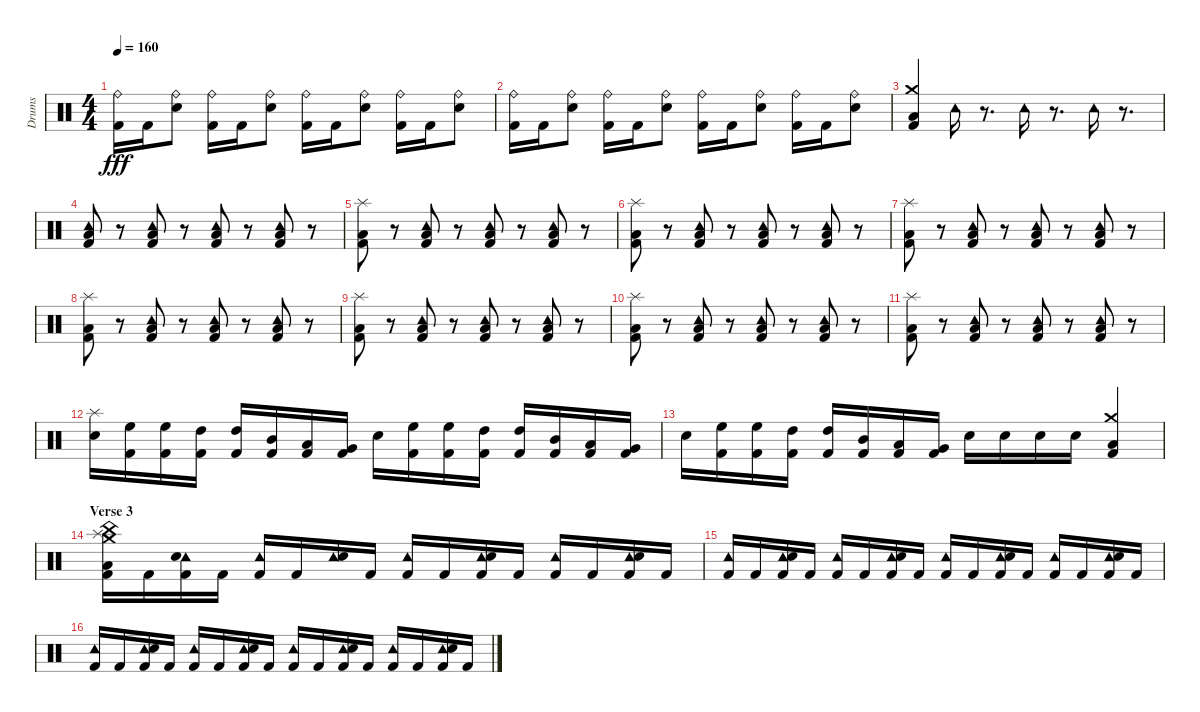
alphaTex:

\track ("Drums" "Drums") {instrument percussion}
\staff {score}
\articulation defaults
\ts (4 4)
\tempo 160
\clef neutral
\ks c
("Kick (hit) 2" "Ride (bell)").16{dy fff} "Kick (hit) 2".16 ("Electric Snare (hit)" "Ride (bell)").8 ("Kick (hit) 2" "Ride (bell)").16 "Kick (hit) 2".16 ("Electric Snare (hit)" "Ride (bell)").8 ("Kick (hit) 2" "Ride (bell)").16 "Kick (hit) 2".16 ("Electric Snare (hit)" "Ride (bell)").8 ("Kick (hit) 2" "Ride (bell)").16 "Kick (hit) 2".16 ("Electric Snare (hit)" "Ride (bell)").8 |
("Kick (hit) 2" "Ride (bell)").16 "Kick (hit) 2".16 ("Electric Snare (hit)" "Ride (bell)").8 ("Kick (hit) 2" "Ride (bell)").16 "Kick (hit) 2".16 ("Electric Snare (hit)" "Ride (bell)").8 ("Kick (hit) 2" "Ride (bell)").16 "Kick (hit) 2".16 ("Electric Snare (hit)" "Ride (bell)").8 ("Kick (hit) 2" "Ride (bell)").16 "Kick (hit) 2".16 ("Electric Snare (hit)" "Ride (bell)").8 |
("Kick (hit) 2" "Crash medium (hit)" "Low Tom (hit)").4 "Tambourine (hit)".16 r.8{d} "Tambourine (hit)".16 r.8{d} "Tambourine (hit)".16 r.8{d} |
("Tambourine (hit)" "Low Tom (hit)" "Kick (hit) 2").8 r.8 ("Tambourine (hit)" "Low Tom (hit)" "Kick (hit) 2").8 r.8 ("Tambourine (hit)" "Low Tom (hit)" "Kick (hit) 2").8 r.8 ("Tambourine (hit)" "Low Tom (hit)" "Kick (hit) 2").8 r.8 |
("Low Tom (hit)" "Splash (hit)" "Kick (hit) 2").8 r.8 ("Tambourine (hit)" "Low Tom (hit)" "Kick (hit) 2").8 r.8 ("Tambourine (hit)" "Low Tom (hit)" "Kick (hit) 2").8 r.8 ("Tambourine (hit)" "Low Tom (hit)" "Kick (hit) 2").8 r.8 |
("Low Tom (hit)" "Splash (hit)" "Kick (hit) 2").8 r.8 ("Tambourine (hit)" "Low Tom (hit)" "Kick (hit) 2").8 r.8 ("Tambourine (hit)" "Low Tom (hit)" "Kick (hit) 2").8 r.8 ("Tambourine (hit)" "Low Tom (hit)" "Kick (hit) 2").8 r.8 |
("Low Tom (hit)" "Splash (hit)" "Kick (hit) 2").8 r.8 ("Tambourine (hit)" "Low Tom (hit)" "Kick (hit) 2").8 r.8 ("Tambourine (hit)" "Low Tom (hit)" "Kick (hit) 2").8 r.8 ("Tambourine (hit)" "Low Tom (hit)" "Kick (hit) 2").8 r.8 |
("Low Tom (hit)" "Splash (hit)" "Kick (hit) 2").8 r.8 ("Tambourine (hit)" "Low Tom (hit)" "Kick (hit) 2").8 r.8 ("Tambourine (hit)" "Low Tom (hit)" "Kick (hit) 2").8 r.8 ("Tambourine (hit)" "Low Tom (hit)" "Kick (hit) 2").8 r.8 |
("Low Tom (hit)" "Splash (hit)" "Kick (hit) 2").8 r.8 ("Tambourine (hit)" "Low Tom (hit)" "Kick (hit) 2").8 r.8 ("Tambourine (hit)" "Low Tom (hit)" "Kick (hit) 2").8 r.8 ("Tambourine (hit)" "Low Tom (hit)" "Kick (hit) 2").8 r.8 |
("Low Tom (hit)" "Splash (hit)" "Kick (hit) 2").8 r.8 ("Tambourine (hit)" "Low Tom (hit)" "Kick (hit) 2").8 r.8 ("Tambourine (hit)" "Low Tom (hit)" "Kick (hit) 2").8 r.8 ("Tambourine (hit)" "Low Tom (hit)" "Kick (hit) 2").8 r.8 |
("Low Tom (hit)" "Splash (hit)" "Kick (hit) 2").8 r.8 ("Tambourine (hit)" "Low Tom (hit)" "Kick (hit) 2").8 r.8 ("Tambourine (hit)" "Low Tom (hit)" "Kick (hit) 2").8 r.8 ("Tambourine (hit)" "Low Tom (hit)" "Kick (hit) 2").8 r.8 |
("Splash (hit)" "Electric Snare (hit)").16 ("High Floor Tom (hit)" "Kick (hit) 2").16 ("High Floor Tom (hit)" "Kick (hit) 2").16 ("High Tom (hit)" "Kick (hit) 2").16 ("High Tom (hit)" "Kick (hit) 2").16 ("Mid Tom (hit)" "Kick (hit) 2").16 ("Low Tom (hit)" "Kick (hit) 2").16 ("Very Low Tom (hit)" "Kick (hit) 2").16 "Electric Snare (hit)".16 ("High Floor Tom (hit)" "Kick (hit) 2").16 ("High Floor Tom (hit)" "Kick (hit) 2").16 ("High Tom (hit)" "Kick (hit) 2").16 ("High Tom (hit)" "Kick (hit) 2").16 ("Mid Tom (hit)" "Kick (hit) 2").16 ("Low Tom (hit)" "Kick (hit) 2").16 ("Very Low Tom (hit)" "Kick (hit) 2").16 |
"Electric Snare (hit)".16 ("High Floor Tom (hit)" "Kick (hit) 2").16 ("High Floor Tom (hit)" "Kick (hit) 2").16 ("High Tom (hit)" "Kick (hit) 2").16 ("High Tom (hit)" "Kick (hit) 2").16 ("Mid Tom (hit)" "Kick (hit) 2").16 ("Low Tom (hit)" "Kick (hit) 2").16 ("Very Low Tom (hit)" "Kick (hit) 2").16 "Electric Snare (hit)".16 "Electric Snare (hit)".16 "Electric Snare (hit)".16 "Electric Snare (hit)".16 ("Low Tom (hit)" "Kick (hit) 2" "Crash medium (hit)").4 |
\section ("" "Verse 3")
("Low Tom (hit)" "China (hit)" "Splash (hit)" "Crash medium (hit)" "Kick (hit) 2").16 "Kick (hit) 2".16 ("Kick (hit) 2" "Tambourine (hit)" "Electric Snare (hit)").16 "Kick (hit) 2".16 ("Kick (hit) 2" "Tambourine (hit)").16 "Kick (hit) 2".16 ("Tambourine (hit)" "Electric Snare (hit)").16 "Kick (hit) 2".16 ("Kick (hit) 2" "Tambourine (hit)").16 "Kick (hit) 2".16 ("Kick (hit) 2" "Tambourine (hit)" "Electric Snare (hit)").16 "Kick (hit) 2".16 ("Kick (hit) 2" "Tambourine (hit)").16 "Kick (hit) 2".16 ("Kick (hit) 2" "Tambourine (hit)" "Electric Snare (hit)").16 "Kick (hit) 2".16 |
("Kick (hit) 2" "Tambourine (hit)").16 "Kick (hit) 2".16 ("Kick (hit) 2" "Tambourine (hit)" "Electric Snare (hit)").16 "Kick (hit) 2".16 ("Kick (hit) 2" "Tambourine (hit)").16 "Kick (hit) 2".16 ("Kick (hit) 2" "Tambourine (hit)" "Electric Snare (hit)").16 "Kick (hit) 2".16 ("Kick (hit) 2" "Tambourine (hit)").16 "Kick (hit) 2".16 ("Kick (hit) 2" "Tambourine (hit)" "Electric Snare (hit)").16 "Kick (hit) 2".16 ("Kick (hit) 2" "Tambourine (hit)").16 "Kick (hit) 2".16 ("Kick (hit) 2" "Tambourine (hit)" "Electric Snare (hit)").16 "Kick (hit) 2".16 |
("Kick (hit) 2" "Tambourine (hit)").16 "Kick (hit) 2".16 ("Kick (hit) 2" "Tambourine (hit)" "Electric Snare (hit)").16 "Kick (hit) 2".16 ("Kick (hit) 2" "Tambourine (hit)").16 "Kick (hit) 2".16 ("Kick (hit) 2" "Tambourine (hit)" "Electric Snare (hit)").16 "Kick (hit) 2".16 ("Kick (hit) 2" "Tambourine (hit)").16 "Kick (hit) 2".16 ("Kick (hit) 2" "Tambourine (hit)" "Electric Snare (hit)").16 "Kick (hit) 2".16 ("Kick (hit) 2" "Tambourine (hit)").16 "Kick (hit) 2".16 ("Kick (hit) 2" "Tambourine (hit)" "Electric Snare (hit)").16 "Kick (hit) 2".16
